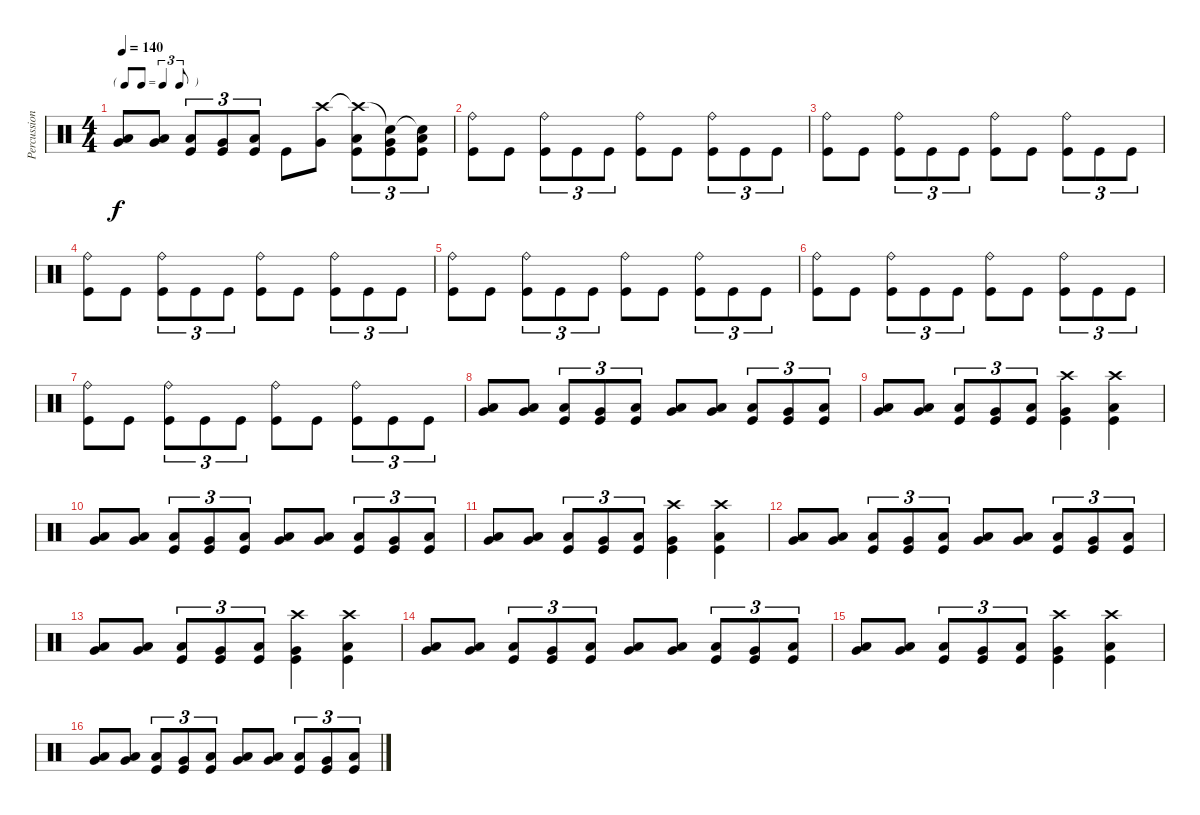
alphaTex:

\track ("Percussion" "Percussion") {instrument percussion}
\staff {score}
\articulation defaults
\ts (4 4)
\tf triplet8th
\tempo 140
\clef neutral
\ks c
("Very Low Tom (hit)" "Low Floor Tom (hit)").8{dy f} ("Very Low Tom (hit)" "Low Floor Tom (hit)").8 ("Low Floor Tom (hit)" "Kick (hit)").8{tu (3 2)} ("Very Low Tom (hit)" "Kick (hit)").8{tu (3 2)} ("Low Floor Tom (hit)" "Kick (hit)").8{tu (3 2)} "Kick (hit)".8 ("Crash high (hit)" "Very Low Tom (hit)").8 ("Crash high (hit)"{t} "Low Floor Tom (hit)" "Kick (hit)").8{tu (3 2)} ("Snare (hit)"{t} "Very Low Tom (hit)" "Kick (hit)").8{tu (3 2)} ("Snare (hit)"{t} "Low Floor Tom (hit)" "Kick (hit)").8{tu (3 2)} |
("Ride (bell)" "Kick (hit)").8 "Kick (hit)".8 ("Ride (bell)" "Kick (hit)").8{tu (3 2)} "Kick (hit)".8{tu (3 2)} "Kick (hit)".8{tu (3 2)} ("Ride (bell)" "Kick (hit)").8 "Kick (hit)".8 ("Ride (bell)" "Kick (hit)").8{tu (3 2)} "Kick (hit)".8{tu (3 2)} "Kick (hit)".8{tu (3 2)} |
("Ride (bell)" "Kick (hit)").8 "Kick (hit)".8 ("Ride (bell)" "Kick (hit)").8{tu (3 2)} "Kick (hit)".8{tu (3 2)} "Kick (hit)".8{tu (3 2)} ("Ride (bell)" "Kick (hit)").8 "Kick (hit)".8 ("Ride (bell)" "Kick (hit)").8{tu (3 2)} "Kick (hit)".8{tu (3 2)} "Kick (hit)".8{tu (3 2)} |
("Ride (bell)" "Kick (hit)").8 "Kick (hit)".8 ("Ride (bell)" "Kick (hit)").8{tu (3 2)} "Kick (hit)".8{tu (3 2)} "Kick (hit)".8{tu (3 2)} ("Ride (bell)" "Kick (hit)").8 "Kick (hit)".8 ("Ride (bell)" "Kick (hit)").8{tu (3 2)} "Kick (hit)".8{tu (3 2)} "Kick (hit)".8{tu (3 2)} |
("Ride (bell)" "Kick (hit)").8 "Kick (hit)".8 ("Ride (bell)" "Kick (hit)").8{tu (3 2)} "Kick (hit)".8{tu (3 2)} "Kick (hit)".8{tu (3 2)} ("Ride (bell)" "Kick (hit)").8 "Kick (hit)".8 ("Ride (bell)" "Kick (hit)").8{tu (3 2)} "Kick (hit)".8{tu (3 2)} "Kick (hit)".8{tu (3 2)} |
("Ride (bell)" "Kick (hit)").8 "Kick (hit)".8 ("Ride (bell)" "Kick (hit)").8{tu (3 2)} "Kick (hit)".8{tu (3 2)} "Kick (hit)".8{tu (3 2)} ("Ride (bell)" "Kick (hit)").8 "Kick (hit)".8 ("Ride (bell)" "Kick (hit)").8{tu (3 2)} "Kick (hit)".8{tu (3 2)} "Kick (hit)".8{tu (3 2)} |
("Ride (bell)" "Kick (hit)").8 "Kick (hit)".8 ("Ride (bell)" "Kick (hit)").8{tu (3 2)} "Kick (hit)".8{tu (3 2)} "Kick (hit)".8{tu (3 2)} ("Ride (bell)" "Kick (hit)").8 "Kick (hit)".8 ("Ride (bell)" "Kick (hit)").8{tu (3 2)} "Kick (hit)".8{tu (3 2)} "Kick (hit)".8{tu (3 2)} |
("Very Low Tom (hit)" "Low Floor Tom (hit)").8 ("Very Low Tom (hit)" "Low Floor Tom (hit)").8 ("Low Floor Tom (hit)" "Kick (hit)").8{tu (3 2)} ("Very Low Tom (hit)" "Kick (hit)").8{tu (3 2)} ("Low Floor Tom (hit)" "Kick (hit)").8{tu (3 2)} ("Very Low Tom (hit)" "Low Floor Tom (hit)").8 ("Very Low Tom (hit)" "Low Floor Tom (hit)").8 ("Low Floor Tom (hit)" "Kick (hit)").8{tu (3 2)} ("Very Low Tom (hit)" "Kick (hit)").8{tu (3 2)} ("Low Floor Tom (hit)" "Kick (hit)").8{tu (3 2)} |
("Very Low Tom (hit)" "Low Floor Tom (hit)").8 ("Very Low Tom (hit)" "Low Floor Tom (hit)").8 ("Low Floor Tom (hit)" "Kick (hit)").8{tu (3 2)} ("Very Low Tom (hit)" "Kick (hit)").8{tu (3 2)} ("Low Floor Tom (hit)" "Kick (hit)").8{tu (3 2)} ("Crash high (hit)" "Very Low Tom (hit)" "Kick (hit)").4 ("Crash high (hit)" "Low Floor Tom (hit)" "Kick (hit)").4 |
("Very Low Tom (hit)" "Low Floor Tom (hit)").8 ("Very Low Tom (hit)" "Low Floor Tom (hit)").8 ("Low Floor Tom (hit)" "Kick (hit)").8{tu (3 2)} ("Very Low Tom (hit)" "Kick (hit)").8{tu (3 2)} ("Low Floor Tom (hit)" "Kick (hit)").8{tu (3 2)} ("Very Low Tom (hit)" "Low Floor Tom (hit)").8 ("Very Low Tom (hit)" "Low Floor Tom (hit)").8 ("Low Floor Tom (hit)" "Kick (hit)").8{tu (3 2)} ("Very Low Tom (hit)" "Kick (hit)").8{tu (3 2)} ("Low Floor Tom (hit)" "Kick (hit)").8{tu (3 2)} |
("Very Low Tom (hit)" "Low Floor Tom (hit)").8 ("Very Low Tom (hit)" "Low Floor Tom (hit)").8 ("Low Floor Tom (hit)" "Kick (hit)").8{tu (3 2)} ("Very Low Tom (hit)" "Kick (hit)").8{tu (3 2)} ("Low Floor Tom (hit)" "Kick (hit)").8{tu (3 2)} ("Crash high (hit)" "Very Low Tom (hit)" "Kick (hit)").4 ("Crash high (hit)" "Low Floor Tom (hit)" "Kick (hit)").4 |
("Very Low Tom (hit)" "Low Floor Tom (hit)").8 ("Very Low Tom (hit)" "Low Floor Tom (hit)").8 ("Low Floor Tom (hit)" "Kick (hit)").8{tu (3 2)} ("Very Low Tom (hit)" "Kick (hit)").8{tu (3 2)} ("Low Floor Tom (hit)" "Kick (hit)").8{tu (3 2)} ("Very Low Tom (hit)" "Low Floor Tom (hit)").8 ("Very Low Tom (hit)" "Low Floor Tom (hit)").8 ("Low Floor Tom (hit)" "Kick (hit)").8{tu (3 2)} ("Very Low Tom (hit)" "Kick (hit)").8{tu (3 2)} ("Low Floor Tom (hit)" "Kick (hit)").8{tu (3 2)} |
("Very Low Tom (hit)" "Low Floor Tom (hit)").8 ("Very Low Tom (hit)" "Low Floor Tom (hit)").8 ("Low Floor Tom (hit)" "Kick (hit)").8{tu (3 2)} ("Very Low Tom (hit)" "Kick (hit)").8{tu (3 2)} ("Low Floor Tom (hit)" "Kick (hit)").8{tu (3 2)} ("Crash high (hit)" "Very Low Tom (hit)" "Kick (hit)").4 ("Crash high (hit)" "Low Floor Tom (hit)" "Kick (hit)").4 |
("Very Low Tom (hit)" "Low Floor Tom (hit)").8 ("Very Low Tom (hit)" "Low Floor Tom (hit)").8 ("Low Floor Tom (hit)" "Kick (hit)").8{tu (3 2)} ("Very Low Tom (hit)" "Kick (hit)").8{tu (3 2)} ("Low Floor Tom (hit)" "Kick (hit)").8{tu (3 2)} ("Very Low Tom (hit)" "Low Floor Tom (hit)").8 ("Very Low Tom (hit)" "Low Floor Tom (hit)").8 ("Low Floor Tom (hit)" "Kick (hit)").8{tu (3 2)} ("Very Low Tom (hit)" "Kick (hit)").8{tu (3 2)} ("Low Floor Tom (hit)" "Kick (hit)").8{tu (3 2)} |
("Very Low Tom (hit)" "Low Floor Tom (hit)").8 ("Very Low Tom (hit)" "Low Floor Tom (hit)").8 ("Low Floor Tom (hit)" "Kick (hit)").8{tu (3 2)} ("Very Low Tom (hit)" "Kick (hit)").8{tu (3 2)} ("Low Floor Tom (hit)" "Kick (hit)").8{tu (3 2)} ("Crash high (hit)" "Very Low Tom (hit)" "Kick (hit)").4 ("Crash high (hit)" "Low Floor Tom (hit)" "Kick (hit)").4 |
("Very Low Tom (hit)" "Low Floor Tom (hit)").8 ("Very Low Tom (hit)" "Low Floor Tom (hit)").8 ("Low Floor Tom (hit)" "Kick (hit)").8{tu (3 2)} ("Very Low Tom (hit)" "Kick (hit)").8{tu (3 2)} ("Low Floor Tom (hit)" "Kick (hit)").8{tu (3 2)} ("Very Low Tom (hit)" "Low Floor Tom (hit)").8 ("Very Low Tom (hit)" "Low Floor Tom (hit)").8 ("Low Floor Tom (hit)" "Kick (hit)").8{tu (3 2)} ("Very Low Tom (hit)" "Kick (hit)").8{tu (3 2)} ("Low Floor Tom (hit)" "Kick (hit)").8{tu (3 2)}
